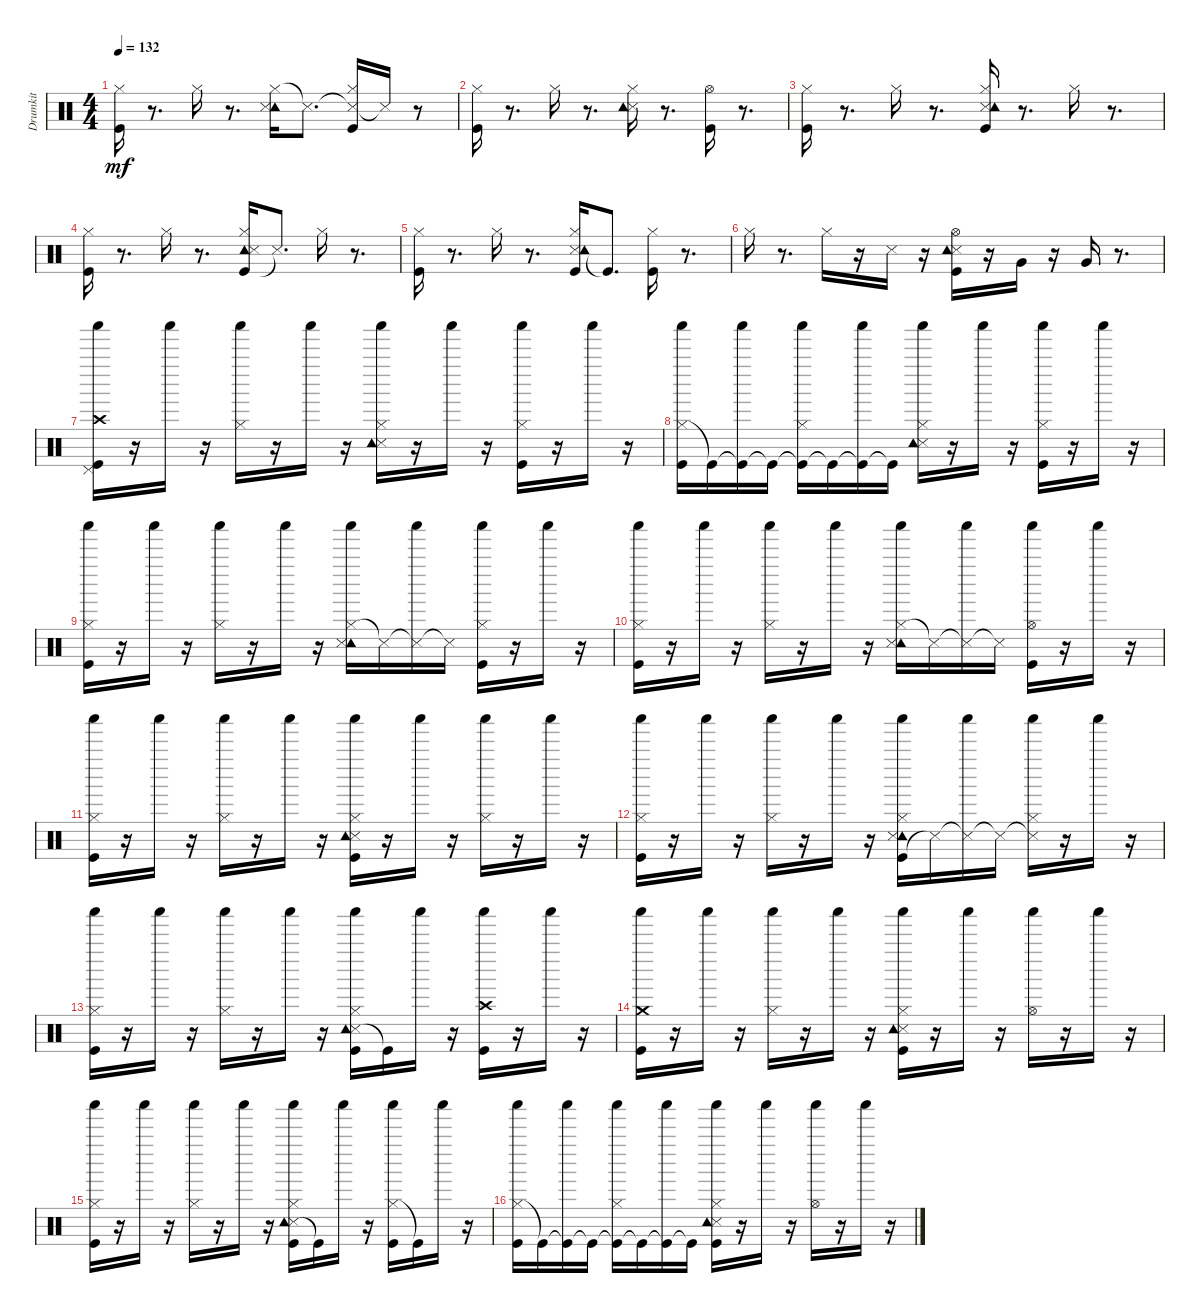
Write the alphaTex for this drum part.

\track ("Drumkit" "Drumkit") {instrument percussion}
\staff {score}
\articulation defaults
\ts (4 4)
\tempo 132
\clef neutral
\ks aminor
("Kick (hit)" "Hi-Hat (closed)").16{dy mf} r.8{d} "Hi-Hat (closed)".16 r.8{d} ("Hi-Hat (closed)" "Tambourine (hit)" "Snare (side stick) 3").16 "Snare (side stick) 3"{t}.8{d} ("Snare (side stick) 3"{t} "Kick (hit)" "Hi-Hat (closed)").16 "Snare (side stick) 3"{t}.16 r.8 |
("Kick (hit)" "Hi-Hat (closed)").16 r.8{d} "Hi-Hat (closed)".16 r.8{d} ("Snare (side stick) 3" "Hi-Hat (closed)" "Tambourine (hit)").16 r.8{d} ("Kick (hit)" "Hi-Hat (open)").16 r.8{d} |
("Kick (hit)" "Hi-Hat (closed)").16 r.8{d} "Hi-Hat (closed)".16 r.8{d} ("Kick (hit)" "Snare (side stick) 3" "Hi-Hat (closed)" "Tambourine (hit)").16 r.8{d} "Hi-Hat (closed)".16 r.8{d} |
("Kick (hit)" "Hi-Hat (closed)").16 r.8{d} "Hi-Hat (closed)".16 r.8{d} ("Kick (hit)" "Hi-Hat (closed)" "Tambourine (hit)" "Snare (side stick) 3").16 "Snare (side stick) 3"{t}.8{d} "Hi-Hat (closed)".16 r.8{d} |
("Kick (hit)" "Hi-Hat (closed)").16 r.8{d} "Hi-Hat (closed)".16 r.8{d} ("Snare (side stick) 3" "Hi-Hat (closed)" "Tambourine (hit)" "Kick (hit)").16 "Kick (hit)"{t}.8{d} ("Kick (hit)" "Hi-Hat (closed)").16 r.8{d} |
"Hi-Hat (closed)".16 r.8{d} "Hi-Hat (closed)".16 r.16 "Snare (side stick) 3".16 r.16 ("Kick (hit)" "Snare (side stick) 3" "Hi-Hat (open)" "Tambourine (hit)").16 r.16 "Very Low Tom (hit)".16 r.16 "Very Low Tom (hit)".16 r.8{d} |
("Kick (hit)" "Pedal Hi-Hat (hit)" "Crash high (hit)" "Shaker (hit)").16 r.16 "Shaker (hit)".16 r.16 ("Hi-Hat (closed)" "Shaker (hit)").16 r.16 "Shaker (hit)".16 r.16 ("Snare (side stick) 3" "Hi-Hat (closed)" "Tambourine (hit)" "Shaker (hit)").16 r.16 "Shaker (hit)".16 r.16 ("Kick (hit)" "Hi-Hat (closed)" "Shaker (hit)").16 r.16 "Shaker (hit)".16 r.16 |
("Hi-Hat (closed)" "Shaker (hit)" "Kick (hit)").16 "Kick (hit)"{t}.16 ("Kick (hit)"{t} "Shaker (hit)").16 "Kick (hit)"{t}.16 ("Kick (hit)"{t} "Hi-Hat (closed)" "Shaker (hit)").16 "Kick (hit)"{t}.16 ("Kick (hit)"{t} "Shaker (hit)").16 "Kick (hit)"{t}.16 ("Snare (side stick) 3" "Hi-Hat (closed)" "Tambourine (hit)" "Shaker (hit)").16 r.16 "Shaker (hit)".16 r.16 ("Kick (hit)" "Hi-Hat (closed)" "Shaker (hit)").16 r.16 "Shaker (hit)".16 r.16 |
("Kick (hit)" "Hi-Hat (closed)" "Shaker (hit)").16 r.16 "Shaker (hit)".16 r.16 ("Hi-Hat (closed)" "Shaker (hit)").16 r.16 "Shaker (hit)".16 r.16 ("Hi-Hat (closed)" "Tambourine (hit)" "Shaker (hit)" "Snare (side stick) 3").16 "Snare (side stick) 3"{t}.16 ("Snare (side stick) 3"{t} "Shaker (hit)").16 "Snare (side stick) 3"{t}.16 ("Kick (hit)" "Hi-Hat (closed)" "Shaker (hit)").16 r.16 "Shaker (hit)".16 r.16 |
("Kick (hit)" "Hi-Hat (closed)" "Shaker (hit)").16 r.16 "Shaker (hit)".16 r.16 ("Hi-Hat (closed)" "Shaker (hit)").16 r.16 "Shaker (hit)".16 r.16 ("Hi-Hat (closed)" "Tambourine (hit)" "Shaker (hit)" "Snare (side stick) 3").16 "Snare (side stick) 3"{t}.16 ("Snare (side stick) 3"{t} "Shaker (hit)").16 "Snare (side stick) 3"{t}.16 ("Kick (hit)" "Hi-Hat (open)" "Shaker (hit)").16 r.16 "Shaker (hit)".16 r.16 |
("Kick (hit)" "Hi-Hat (closed)" "Shaker (hit)").16 r.16 "Shaker (hit)".16 r.16 ("Hi-Hat (closed)" "Shaker (hit)").16 r.16 "Shaker (hit)".16 r.16 ("Kick (hit)" "Snare (side stick) 3" "Hi-Hat (closed)" "Tambourine (hit)" "Shaker (hit)").16 r.16 "Shaker (hit)".16 r.16 ("Hi-Hat (closed)" "Shaker (hit)").16 r.16 "Shaker (hit)".16 r.16 |
("Kick (hit)" "Hi-Hat (closed)" "Shaker (hit)").16 r.16 "Shaker (hit)".16 r.16 ("Hi-Hat (closed)" "Shaker (hit)").16 r.16 "Shaker (hit)".16 r.16 ("Kick (hit)" "Hi-Hat (closed)" "Tambourine (hit)" "Shaker (hit)" "Snare (side stick) 3").16 "Snare (side stick) 3"{t}.16 ("Snare (side stick) 3"{t} "Shaker (hit)").16 "Snare (side stick) 3"{t}.16 ("Snare (side stick) 3"{t} "Hi-Hat (closed)" "Shaker (hit)").16 r.16 "Shaker (hit)".16 r.16 |
("Kick (hit)" "Hi-Hat (closed)" "Shaker (hit)").16 r.16 "Shaker (hit)".16 r.16 ("Hi-Hat (closed)" "Shaker (hit)").16 r.16 "Shaker (hit)".16 r.16 ("Snare (side stick) 3" "Hi-Hat (closed)" "Tambourine (hit)" "Shaker (hit)" "Kick (hit)").16 "Kick (hit)"{t}.16 "Shaker (hit)".16 r.16 ("Kick (hit)" "Crash high (hit)" "Shaker (hit)").16 r.16 "Shaker (hit)".16 r.16 |
("Kick (hit)" "Crash medium (hit)" "Shaker (hit)").16 r.16 "Shaker (hit)".16 r.16 ("Hi-Hat (closed)" "Shaker (hit)").16 r.16 "Shaker (hit)".16 r.16 ("Kick (hit)" "Snare (side stick) 3" "Hi-Hat (closed)" "Tambourine (hit)" "Shaker (hit)").16 r.16 "Shaker (hit)".16 r.16 ("Hi-Hat (open)" "Shaker (hit)").16 r.16 "Shaker (hit)".16 r.16 |
("Kick (hit)" "Hi-Hat (closed)" "Shaker (hit)").16 r.16 "Shaker (hit)".16 r.16 ("Hi-Hat (closed)" "Shaker (hit)").16 r.16 "Shaker (hit)".16 r.16 ("Snare (side stick) 3" "Hi-Hat (closed)" "Tambourine (hit)" "Shaker (hit)" "Kick (hit)").16 "Kick (hit)"{t}.16 "Shaker (hit)".16 r.16 ("Hi-Hat (closed)" "Shaker (hit)" "Kick (hit)").16 "Kick (hit)"{t}.16 "Shaker (hit)".16 r.16 |
("Hi-Hat (closed)" "Shaker (hit)" "Kick (hit)").16 "Kick (hit)"{t}.16 ("Kick (hit)"{t} "Shaker (hit)").16 "Kick (hit)"{t}.16 ("Kick (hit)"{t} "Hi-Hat (closed)" "Shaker (hit)").16 "Kick (hit)"{t}.16 ("Kick (hit)"{t} "Shaker (hit)").16 "Kick (hit)"{t}.16 ("Kick (hit)" "Snare (side stick) 3" "Hi-Hat (closed)" "Tambourine (hit)" "Shaker (hit)").16 r.16 "Shaker (hit)".16 r.16 ("Hi-Hat (open)" "Shaker (hit)").16 r.16 "Shaker (hit)".16 r.16
